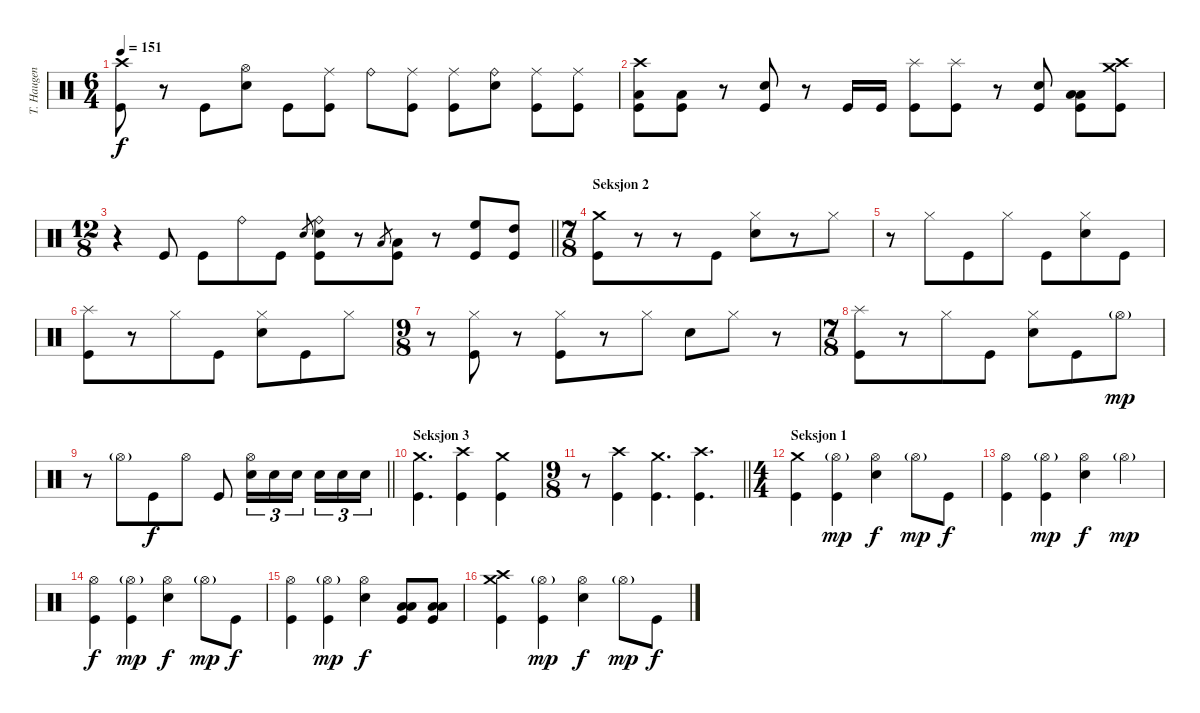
\track ("T. Haugen" "T. Haugen") {instrument percussion}
\staff {score}
\articulation defaults
\ts (6 4)
\tempo 151
\clef neutral
\ks c
("Crash high (hit)" "Kick (hit)").8{dy f} r.8 "Kick (hit)".8 ("Hi-Hat (open)" "Electric Snare (hit)").8 "Kick (hit)".8 ("Ride (middle)" "Kick (hit)").8 "Ride (bell)".8 ("Ride (middle)" "Kick (hit)").8 ("Ride (middle)" "Kick (hit)").8 ("Ride (bell)" "Electric Snare (hit)").8 ("Ride (middle)" "Kick (hit)").8 ("Ride (middle)" "Kick (hit)").8 |
("Crash high (hit)" "Low Floor Tom (hit)" "Kick (hit)").8 ("Low Floor Tom (hit)" "Kick (hit)").8 r.8 ("Electric Snare (hit)" "Kick (hit)").8 r.8 "Kick (hit)".16 "Kick (hit)".16 ("Splash (hit)" "Kick (hit)").8 ("Splash (hit)" "Kick (hit)").8 r.8 ("Electric Snare (hit)" "Kick (hit)").8 ("Low Floor Tom (hit)" "Low Floor Tom (hit)" "Kick (hit)").8 ("Crash medium (hit)" "Crash high (hit)" "Kick (hit)").8 |
\ts (12 8)
\barLineRight lightlight
r.4 "Kick (hit)".8 "Kick (hit)".8 "Ride (bell)".8 "Kick (hit)".8 "Electric Snare (hit)".8{gr} ("Ride (bell)" "Electric Snare (hit)" "Kick (hit)").8 r.8 "Low Floor Tom (hit)".8{gr} ("Low Floor Tom (hit)" "Kick (hit)").8 r.8 ("High Floor Tom (hit)" "Kick (hit)").8 ("High Tom (hit)" "Kick (hit)").8 |
\ts (7 8)
\section ("" "Seksjon 2")
("Crash medium (hit)" "Kick (hit)").8 r.8 r.8 "Kick (hit)".8 ("Hi-Hat (closed)" "Electric Snare (hit)").8 r.8 "Hi-Hat (closed)".8 |
r.8 "Hi-Hat (closed)".8 "Kick (hit)".8 "Hi-Hat (closed)".8 "Kick (hit)".8 ("Hi-Hat (closed)" "Electric Snare (hit)").8 "Kick (hit)".8 |
("Splash (hit)" "Kick (hit)").8 r.8 "Hi-Hat (closed)".8 "Kick (hit)".8 ("Hi-Hat (closed)" "Electric Snare (hit)").8 "Kick (hit)".8 "Hi-Hat (closed)".8 |
\ts (9 8)
r.8 ("Hi-Hat (closed)" "Kick (hit)").8 r.8 ("Hi-Hat (closed)" "Kick (hit)").8 r.8 "Hi-Hat (closed)".8 "Electric Snare (hit)".8 "Hi-Hat (closed)".8 r.8 |
\ts (7 8)
("Splash (hit)" "Kick (hit)").8 r.8 "Hi-Hat (closed)".8 "Kick (hit)".8 ("Hi-Hat (closed)" "Electric Snare (hit)").8 "Kick (hit)".8 "Hi-Hat (open)"{g}.8{dy mp} |
\barLineRight lightlight
r.8 "Hi-Hat (open)"{g}.8 "Kick (hit)".8{dy f} "Hi-Hat (open)".8 "Kick (hit)".8 ("Hi-Hat (open)" "Electric Snare (hit)").16{tu (3 2)} "Electric Snare (hit)".16{tu (3 2)} "Electric Snare (hit)".16{tu (3 2)} "Electric Snare (hit)".16{tu (3 2)} "Electric Snare (hit)".16{tu (3 2)} "Electric Snare (hit)".16{tu (3 2)} |
\section ("" "Seksjon 3")
("Crash medium (hit)" "Kick (hit)").4{d} ("Crash high (hit)" "Kick (hit)").4 ("Crash medium (hit)" "Kick (hit)").4 |
\ts (9 8)
\barLineRight lightlight
r.8 ("Crash high (hit)" "Kick (hit)").4 ("Crash medium (hit)" "Kick (hit)").4{d} ("Crash high (hit)" "Kick (hit)").4{d} |
\ts (4 4)
\section ("" "Seksjon 1")
("Crash medium (hit)" "Kick (hit)").4 ("Hi-Hat (open)"{g} "Kick (hit)").4{dy mp} ("Hi-Hat (open)" "Electric Snare (hit)").4{dy f} "Hi-Hat (open)"{g}.8{dy mp} "Kick (hit)".8{dy f} |
("Hi-Hat (open)" "Kick (hit)").4 ("Hi-Hat (open)"{g} "Kick (hit)").4{dy mp} ("Hi-Hat (open)" "Electric Snare (hit)").4{dy f} "Hi-Hat (open)"{g}.4{dy mp} |
("Hi-Hat (open)" "Kick (hit)").4{dy f} ("Hi-Hat (open)"{g} "Kick (hit)").4{dy mp} ("Hi-Hat (open)" "Electric Snare (hit)").4{dy f} "Hi-Hat (open)"{g}.8{dy mp} "Kick (hit)".8{dy f} |
("Hi-Hat (open)" "Kick (hit)").4 ("Hi-Hat (open)"{g} "Kick (hit)").4{dy mp} ("Hi-Hat (open)" "Electric Snare (hit)").4{dy f} ("Low Floor Tom (hit)" "Low Floor Tom (hit)" "Kick (hit)").8 ("Low Floor Tom (hit)" "Low Floor Tom (hit)" "Kick (hit)").8 |
("Crash medium (hit)" "Crash high (hit)" "Kick (hit)").4 ("Hi-Hat (open)"{g} "Kick (hit)").4{dy mp} ("Hi-Hat (open)" "Electric Snare (hit)").4{dy f} "Hi-Hat (open)"{g}.8{dy mp} "Kick (hit)".8{dy f}
